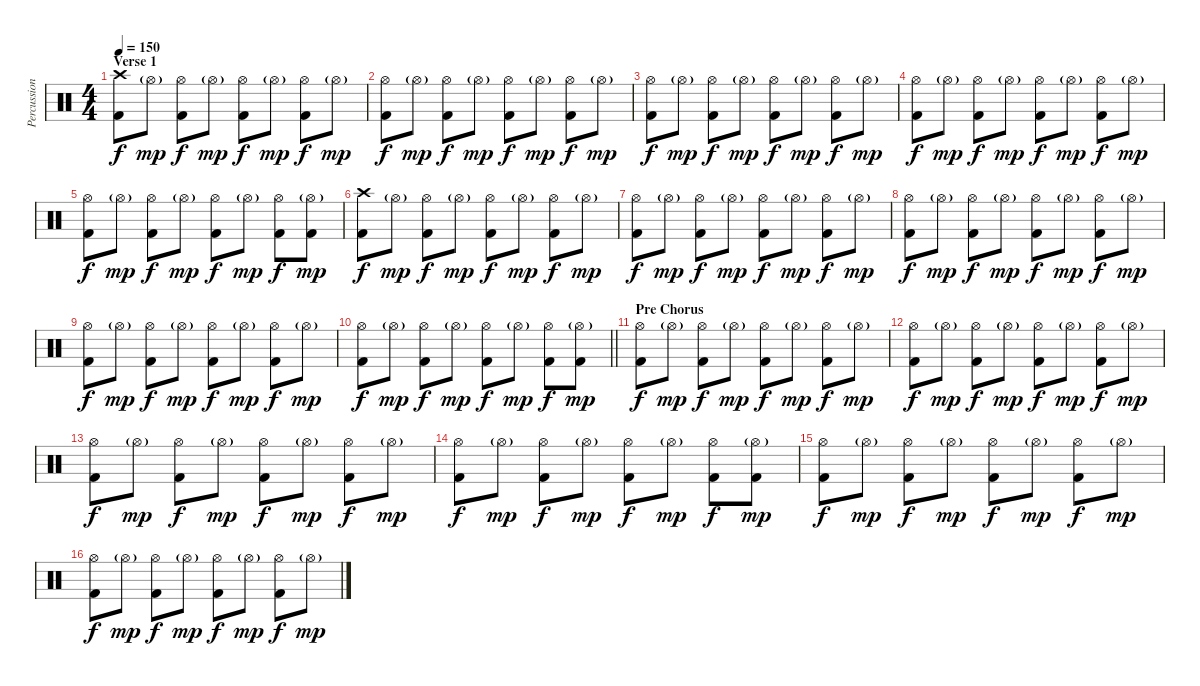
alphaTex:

\track ("Percussion" "Percussion") {instrument percussion}
\staff {score}
\articulation defaults
\ts (4 4)
\section ("" "Verse 1")
\tempo 150
\clef neutral
\ks c
("Crash high (hit)" "Kick (hit) 2").8{dy f} "Hi-Hat (open)"{g}.8{dy mp} ("Hi-Hat (open)" "Kick (hit) 2").8{dy f} "Hi-Hat (open)"{g}.8{dy mp} ("Hi-Hat (open)" "Kick (hit) 2").8{dy f} "Hi-Hat (open)"{g}.8{dy mp} ("Hi-Hat (open)" "Kick (hit) 2").8{dy f} "Hi-Hat (open)"{g}.8{dy mp} |
("Hi-Hat (open)" "Kick (hit) 2").8{dy f} "Hi-Hat (open)"{g}.8{dy mp} ("Hi-Hat (open)" "Kick (hit) 2").8{dy f} "Hi-Hat (open)"{g}.8{dy mp} ("Hi-Hat (open)" "Kick (hit) 2").8{dy f} "Hi-Hat (open)"{g}.8{dy mp} ("Hi-Hat (open)" "Kick (hit) 2").8{dy f} "Hi-Hat (open)"{g}.8{dy mp} |
("Hi-Hat (open)" "Kick (hit) 2").8{dy f} "Hi-Hat (open)"{g}.8{dy mp} ("Hi-Hat (open)" "Kick (hit) 2").8{dy f} "Hi-Hat (open)"{g}.8{dy mp} ("Hi-Hat (open)" "Kick (hit) 2").8{dy f} "Hi-Hat (open)"{g}.8{dy mp} ("Hi-Hat (open)" "Kick (hit) 2").8{dy f} "Hi-Hat (open)"{g}.8{dy mp} |
("Hi-Hat (open)" "Kick (hit) 2").8{dy f} "Hi-Hat (open)"{g}.8{dy mp} ("Hi-Hat (open)" "Kick (hit) 2").8{dy f} "Hi-Hat (open)"{g}.8{dy mp} ("Hi-Hat (open)" "Kick (hit) 2").8{dy f} "Hi-Hat (open)"{g}.8{dy mp} ("Hi-Hat (open)" "Kick (hit) 2").8{dy f} "Hi-Hat (open)"{g}.8{dy mp} |
("Hi-Hat (open)" "Kick (hit) 2").8{dy f} "Hi-Hat (open)"{g}.8{dy mp} ("Hi-Hat (open)" "Kick (hit) 2").8{dy f} "Hi-Hat (open)"{g}.8{dy mp} ("Hi-Hat (open)" "Kick (hit) 2").8{dy f} "Hi-Hat (open)"{g}.8{dy mp} ("Hi-Hat (open)" "Kick (hit) 2").8{dy f} ("Hi-Hat (open)"{g} "Kick (hit) 2").8{dy mp} |
("Crash high (hit)" "Kick (hit) 2").8{dy f} "Hi-Hat (open)"{g}.8{dy mp} ("Hi-Hat (open)" "Kick (hit) 2").8{dy f} "Hi-Hat (open)"{g}.8{dy mp} ("Hi-Hat (open)" "Kick (hit) 2").8{dy f} "Hi-Hat (open)"{g}.8{dy mp} ("Hi-Hat (open)" "Kick (hit) 2").8{dy f} "Hi-Hat (open)"{g}.8{dy mp} |
("Hi-Hat (open)" "Kick (hit) 2").8{dy f} "Hi-Hat (open)"{g}.8{dy mp} ("Hi-Hat (open)" "Kick (hit) 2").8{dy f} "Hi-Hat (open)"{g}.8{dy mp} ("Hi-Hat (open)" "Kick (hit) 2").8{dy f} "Hi-Hat (open)"{g}.8{dy mp} ("Hi-Hat (open)" "Kick (hit) 2").8{dy f} "Hi-Hat (open)"{g}.8{dy mp} |
("Hi-Hat (open)" "Kick (hit) 2").8{dy f} "Hi-Hat (open)"{g}.8{dy mp} ("Hi-Hat (open)" "Kick (hit) 2").8{dy f} "Hi-Hat (open)"{g}.8{dy mp} ("Hi-Hat (open)" "Kick (hit) 2").8{dy f} "Hi-Hat (open)"{g}.8{dy mp} ("Hi-Hat (open)" "Kick (hit) 2").8{dy f} "Hi-Hat (open)"{g}.8{dy mp} |
("Hi-Hat (open)" "Kick (hit) 2").8{dy f} "Hi-Hat (open)"{g}.8{dy mp} ("Hi-Hat (open)" "Kick (hit) 2").8{dy f} "Hi-Hat (open)"{g}.8{dy mp} ("Hi-Hat (open)" "Kick (hit) 2").8{dy f} "Hi-Hat (open)"{g}.8{dy mp} ("Hi-Hat (open)" "Kick (hit) 2").8{dy f} "Hi-Hat (open)"{g}.8{dy mp} |
\barLineRight lightlight
("Hi-Hat (open)" "Kick (hit) 2").8{dy f} "Hi-Hat (open)"{g}.8{dy mp} ("Hi-Hat (open)" "Kick (hit) 2").8{dy f} "Hi-Hat (open)"{g}.8{dy mp} ("Hi-Hat (open)" "Kick (hit) 2").8{dy f} "Hi-Hat (open)"{g}.8{dy mp} ("Hi-Hat (open)" "Kick (hit) 2").8{dy f} ("Hi-Hat (open)"{g} "Kick (hit) 2").8{dy mp} |
\section ("" "Pre Chorus")
("Hi-Hat (open)" "Kick (hit) 2").8{dy f} "Hi-Hat (open)"{g}.8{dy mp} ("Hi-Hat (open)" "Kick (hit) 2").8{dy f} "Hi-Hat (open)"{g}.8{dy mp} ("Hi-Hat (open)" "Kick (hit) 2").8{dy f} "Hi-Hat (open)"{g}.8{dy mp} ("Hi-Hat (open)" "Kick (hit) 2").8{dy f} "Hi-Hat (open)"{g}.8{dy mp} |
("Hi-Hat (open)" "Kick (hit) 2").8{dy f} "Hi-Hat (open)"{g}.8{dy mp} ("Hi-Hat (open)" "Kick (hit) 2").8{dy f} "Hi-Hat (open)"{g}.8{dy mp} ("Hi-Hat (open)" "Kick (hit) 2").8{dy f} "Hi-Hat (open)"{g}.8{dy mp} ("Hi-Hat (open)" "Kick (hit) 2").8{dy f} "Hi-Hat (open)"{g}.8{dy mp} |
("Hi-Hat (open)" "Kick (hit) 2").8{dy f} "Hi-Hat (open)"{g}.8{dy mp} ("Hi-Hat (open)" "Kick (hit) 2").8{dy f} "Hi-Hat (open)"{g}.8{dy mp} ("Hi-Hat (open)" "Kick (hit) 2").8{dy f} "Hi-Hat (open)"{g}.8{dy mp} ("Hi-Hat (open)" "Kick (hit) 2").8{dy f} "Hi-Hat (open)"{g}.8{dy mp} |
("Hi-Hat (open)" "Kick (hit) 2").8{dy f} "Hi-Hat (open)"{g}.8{dy mp} ("Hi-Hat (open)" "Kick (hit) 2").8{dy f} "Hi-Hat (open)"{g}.8{dy mp} ("Hi-Hat (open)" "Kick (hit) 2").8{dy f} "Hi-Hat (open)"{g}.8{dy mp} ("Hi-Hat (open)" "Kick (hit) 2").8{dy f} ("Hi-Hat (open)"{g} "Kick (hit) 2").8{dy mp} |
("Hi-Hat (open)" "Kick (hit) 2").8{dy f} "Hi-Hat (open)"{g}.8{dy mp} ("Hi-Hat (open)" "Kick (hit) 2").8{dy f} "Hi-Hat (open)"{g}.8{dy mp} ("Hi-Hat (open)" "Kick (hit) 2").8{dy f} "Hi-Hat (open)"{g}.8{dy mp} ("Hi-Hat (open)" "Kick (hit) 2").8{dy f} "Hi-Hat (open)"{g}.8{dy mp} |
("Hi-Hat (open)" "Kick (hit) 2").8{dy f} "Hi-Hat (open)"{g}.8{dy mp} ("Hi-Hat (open)" "Kick (hit) 2").8{dy f} "Hi-Hat (open)"{g}.8{dy mp} ("Hi-Hat (open)" "Kick (hit) 2").8{dy f} "Hi-Hat (open)"{g}.8{dy mp} ("Hi-Hat (open)" "Kick (hit) 2").8{dy f} "Hi-Hat (open)"{g}.8{dy mp}
